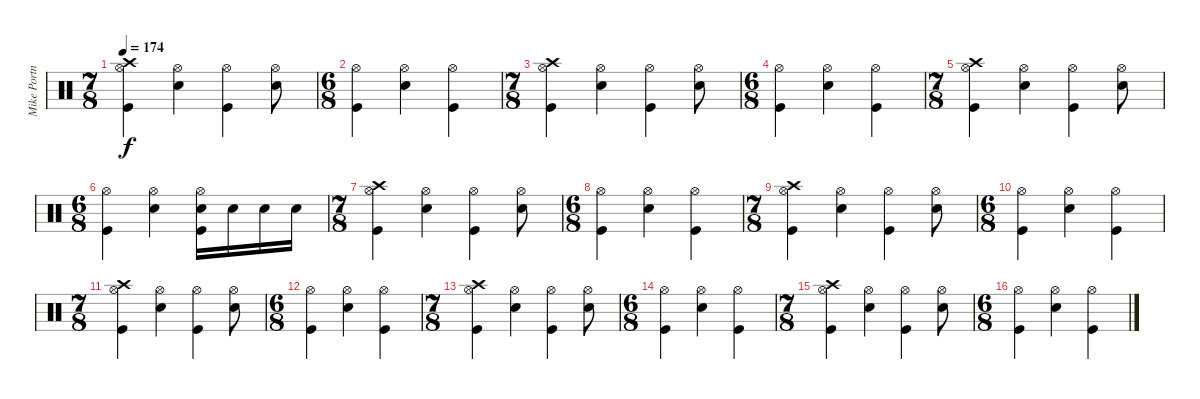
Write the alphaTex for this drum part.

\track ("Mike Portnoy" "Mike Portn") {instrument percussion}
\staff {score}
\articulation defaults
\ts (7 8)
\tempo 174
\clef neutral
\ks c
("Hi-Hat (open)" "Crash high (hit)" "Kick (hit)").4{dy f} ("Snare (hit) 2" "Hi-Hat (open)").4 ("Hi-Hat (open)" "Kick (hit)").4 ("Snare (hit) 2" "Hi-Hat (open)").8 |
\ts (6 8)
("Hi-Hat (open)" "Kick (hit)").4 ("Snare (hit) 2" "Hi-Hat (open)").4 ("Hi-Hat (open)" "Kick (hit)").4 |
\ts (7 8)
("Hi-Hat (open)" "Crash high (hit)" "Kick (hit)").4 ("Snare (hit) 2" "Hi-Hat (open)").4 ("Hi-Hat (open)" "Kick (hit)").4 ("Snare (hit) 2" "Hi-Hat (open)").8 |
\ts (6 8)
("Hi-Hat (open)" "Kick (hit)").4 ("Snare (hit) 2" "Hi-Hat (open)").4 ("Hi-Hat (open)" "Kick (hit)").4 |
\ts (7 8)
("Hi-Hat (open)" "Crash high (hit)" "Kick (hit)").4 ("Snare (hit) 2" "Hi-Hat (open)").4 ("Hi-Hat (open)" "Kick (hit)").4 ("Snare (hit) 2" "Hi-Hat (open)").8 |
\ts (6 8)
("Hi-Hat (open)" "Kick (hit)").4 ("Snare (hit) 2" "Hi-Hat (open)").4 ("Snare (hit) 2" "Hi-Hat (open)" "Kick (hit)").16 "Snare (hit) 2".16 "Snare (hit) 2".16 "Snare (hit) 2".16 |
\ts (7 8)
("Hi-Hat (open)" "Crash high (hit)" "Kick (hit)").4 ("Snare (hit) 2" "Hi-Hat (open)").4 ("Hi-Hat (open)" "Kick (hit)").4 ("Snare (hit) 2" "Hi-Hat (open)").8 |
\ts (6 8)
("Hi-Hat (open)" "Kick (hit)").4 ("Snare (hit) 2" "Hi-Hat (open)").4 ("Hi-Hat (open)" "Kick (hit)").4 |
\ts (7 8)
("Hi-Hat (open)" "Crash high (hit)" "Kick (hit)").4 ("Snare (hit) 2" "Hi-Hat (open)").4 ("Hi-Hat (open)" "Kick (hit)").4 ("Snare (hit) 2" "Hi-Hat (open)").8 |
\ts (6 8)
("Hi-Hat (open)" "Kick (hit)").4 ("Snare (hit) 2" "Hi-Hat (open)").4 ("Hi-Hat (open)" "Kick (hit)").4 |
\ts (7 8)
("Hi-Hat (open)" "Crash high (hit)" "Kick (hit)").4 ("Snare (hit) 2" "Hi-Hat (open)").4 ("Hi-Hat (open)" "Kick (hit)").4 ("Snare (hit) 2" "Hi-Hat (open)").8 |
\ts (6 8)
("Hi-Hat (open)" "Kick (hit)").4 ("Snare (hit) 2" "Hi-Hat (open)").4 ("Hi-Hat (open)" "Kick (hit)").4 |
\ts (7 8)
("Hi-Hat (open)" "Crash high (hit)" "Kick (hit)").4 ("Snare (hit) 2" "Hi-Hat (open)").4 ("Hi-Hat (open)" "Kick (hit)").4 ("Snare (hit) 2" "Hi-Hat (open)").8 |
\ts (6 8)
("Hi-Hat (open)" "Kick (hit)").4 ("Snare (hit) 2" "Hi-Hat (open)").4 ("Hi-Hat (open)" "Kick (hit)").4 |
\ts (7 8)
("Hi-Hat (open)" "Crash high (hit)" "Kick (hit)").4 ("Snare (hit) 2" "Hi-Hat (open)").4 ("Hi-Hat (open)" "Kick (hit)").4 ("Snare (hit) 2" "Hi-Hat (open)").8 |
\ts (6 8)
("Hi-Hat (open)" "Kick (hit)").4 ("Snare (hit) 2" "Hi-Hat (open)").4 ("Hi-Hat (open)" "Kick (hit)").4
